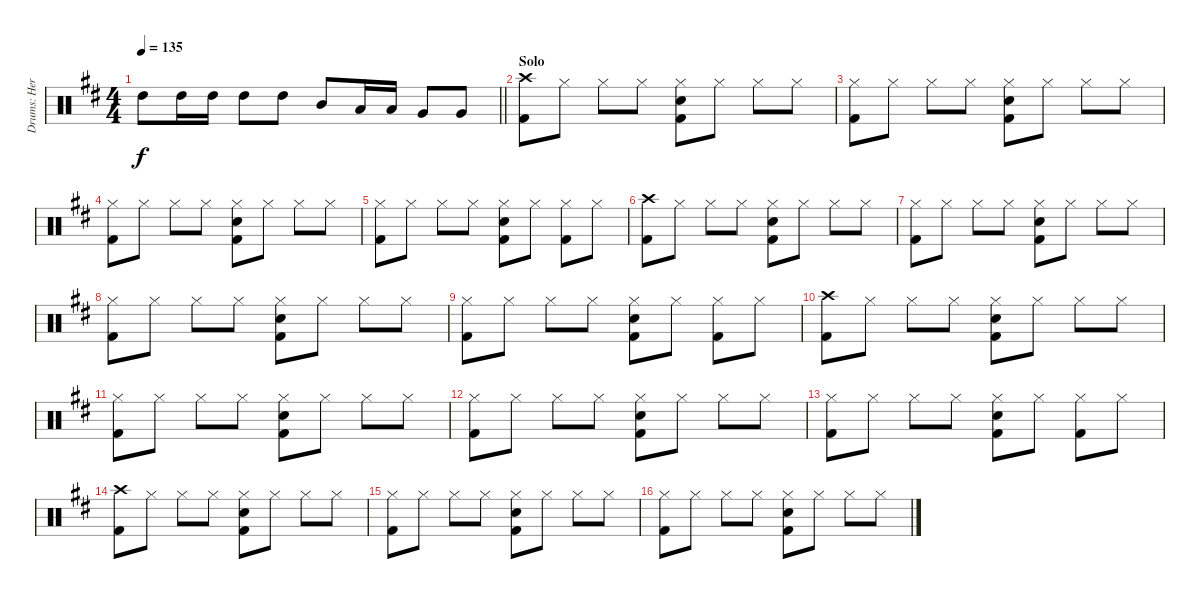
\track ("Drums: Herman" "Drums: Her") {instrument percussion}
\staff {score}
\articulation defaults
\ts (4 4)
\tempo 135
\clef neutral
\barLineRight lightlight
\ks d "High Tom (hit)".8{dy f} "High Tom (hit)".16 "High Tom (hit)".16 "High Tom (hit)".8 "High Tom (hit)".8 "Mid Tom (hit)".8 "Low Tom (hit)".16 "Low Tom (hit)".16 "Very Low Tom (hit)".8 "Very Low Tom (hit)".8
|
\section ("" "Solo")
("Crash high (hit)" "Kick (hit) 2").8 "Hi-Hat (closed)".8 "Hi-Hat (closed)".8 "Hi-Hat (closed)".8 ("Hi-Hat (closed)" "Snare (hit) 2" "Kick (hit) 2").8 "Hi-Hat (closed)".8 "Hi-Hat (closed)".8 "Hi-Hat (closed)".8 |
("Hi-Hat (closed)" "Kick (hit) 2").8 "Hi-Hat (closed)".8 "Hi-Hat (closed)".8 "Hi-Hat (closed)".8 ("Hi-Hat (closed)" "Snare (hit) 2" "Kick (hit) 2").8 "Hi-Hat (closed)".8 "Hi-Hat (closed)".8 "Hi-Hat (closed)".8 |
("Hi-Hat (closed)" "Kick (hit) 2").8 "Hi-Hat (closed)".8 "Hi-Hat (closed)".8 "Hi-Hat (closed)".8 ("Hi-Hat (closed)" "Snare (hit) 2" "Kick (hit) 2").8 "Hi-Hat (closed)".8 "Hi-Hat (closed)".8 "Hi-Hat (closed)".8 |
("Hi-Hat (closed)" "Kick (hit) 2").8 "Hi-Hat (closed)".8 "Hi-Hat (closed)".8 "Hi-Hat (closed)".8 ("Hi-Hat (closed)" "Snare (hit) 2" "Kick (hit) 2").8 "Hi-Hat (closed)".8 ("Hi-Hat (closed)" "Kick (hit) 2").8 "Hi-Hat (closed)".8 |
("Crash high (hit)" "Kick (hit) 2").8 "Hi-Hat (closed)".8 "Hi-Hat (closed)".8 "Hi-Hat (closed)".8 ("Hi-Hat (closed)" "Snare (hit) 2" "Kick (hit) 2").8 "Hi-Hat (closed)".8 "Hi-Hat (closed)".8 "Hi-Hat (closed)".8 |
("Hi-Hat (closed)" "Kick (hit) 2").8 "Hi-Hat (closed)".8 "Hi-Hat (closed)".8 "Hi-Hat (closed)".8 ("Hi-Hat (closed)" "Snare (hit) 2" "Kick (hit) 2").8 "Hi-Hat (closed)".8 "Hi-Hat (closed)".8 "Hi-Hat (closed)".8 |
("Hi-Hat (closed)" "Kick (hit) 2").8 "Hi-Hat (closed)".8 "Hi-Hat (closed)".8 "Hi-Hat (closed)".8 ("Hi-Hat (closed)" "Snare (hit) 2" "Kick (hit) 2").8 "Hi-Hat (closed)".8 "Hi-Hat (closed)".8 "Hi-Hat (closed)".8 |
("Hi-Hat (closed)" "Kick (hit) 2").8 "Hi-Hat (closed)".8 "Hi-Hat (closed)".8 "Hi-Hat (closed)".8 ("Hi-Hat (closed)" "Snare (hit) 2" "Kick (hit) 2").8 "Hi-Hat (closed)".8 ("Hi-Hat (closed)" "Kick (hit) 2").8 "Hi-Hat (closed)".8 |
("Crash high (hit)" "Kick (hit) 2").8 "Hi-Hat (closed)".8 "Hi-Hat (closed)".8 "Hi-Hat (closed)".8 ("Hi-Hat (closed)" "Snare (hit) 2" "Kick (hit) 2").8 "Hi-Hat (closed)".8 "Hi-Hat (closed)".8 "Hi-Hat (closed)".8 |
("Hi-Hat (closed)" "Kick (hit) 2").8 "Hi-Hat (closed)".8 "Hi-Hat (closed)".8 "Hi-Hat (closed)".8 ("Hi-Hat (closed)" "Snare (hit) 2" "Kick (hit) 2").8 "Hi-Hat (closed)".8 "Hi-Hat (closed)".8 "Hi-Hat (closed)".8 |
("Hi-Hat (closed)" "Kick (hit) 2").8 "Hi-Hat (closed)".8 "Hi-Hat (closed)".8 "Hi-Hat (closed)".8 ("Hi-Hat (closed)" "Snare (hit) 2" "Kick (hit) 2").8 "Hi-Hat (closed)".8 "Hi-Hat (closed)".8 "Hi-Hat (closed)".8 |
("Hi-Hat (closed)" "Kick (hit) 2").8 "Hi-Hat (closed)".8 "Hi-Hat (closed)".8 "Hi-Hat (closed)".8 ("Hi-Hat (closed)" "Snare (hit) 2" "Kick (hit) 2").8 "Hi-Hat (closed)".8 ("Hi-Hat (closed)" "Kick (hit) 2").8 "Hi-Hat (closed)".8 |
("Crash high (hit)" "Kick (hit) 2").8 "Hi-Hat (closed)".8 "Hi-Hat (closed)".8 "Hi-Hat (closed)".8 ("Hi-Hat (closed)" "Snare (hit) 2" "Kick (hit) 2").8 "Hi-Hat (closed)".8 "Hi-Hat (closed)".8 "Hi-Hat (closed)".8 |
("Hi-Hat (closed)" "Kick (hit) 2").8 "Hi-Hat (closed)".8 "Hi-Hat (closed)".8 "Hi-Hat (closed)".8 ("Hi-Hat (closed)" "Snare (hit) 2" "Kick (hit) 2").8 "Hi-Hat (closed)".8 "Hi-Hat (closed)".8 "Hi-Hat (closed)".8 |
("Hi-Hat (closed)" "Kick (hit) 2").8 "Hi-Hat (closed)".8 "Hi-Hat (closed)".8 "Hi-Hat (closed)".8 ("Hi-Hat (closed)" "Snare (hit) 2" "Kick (hit) 2").8 "Hi-Hat (closed)".8 "Hi-Hat (closed)".8 "Hi-Hat (closed)".8
